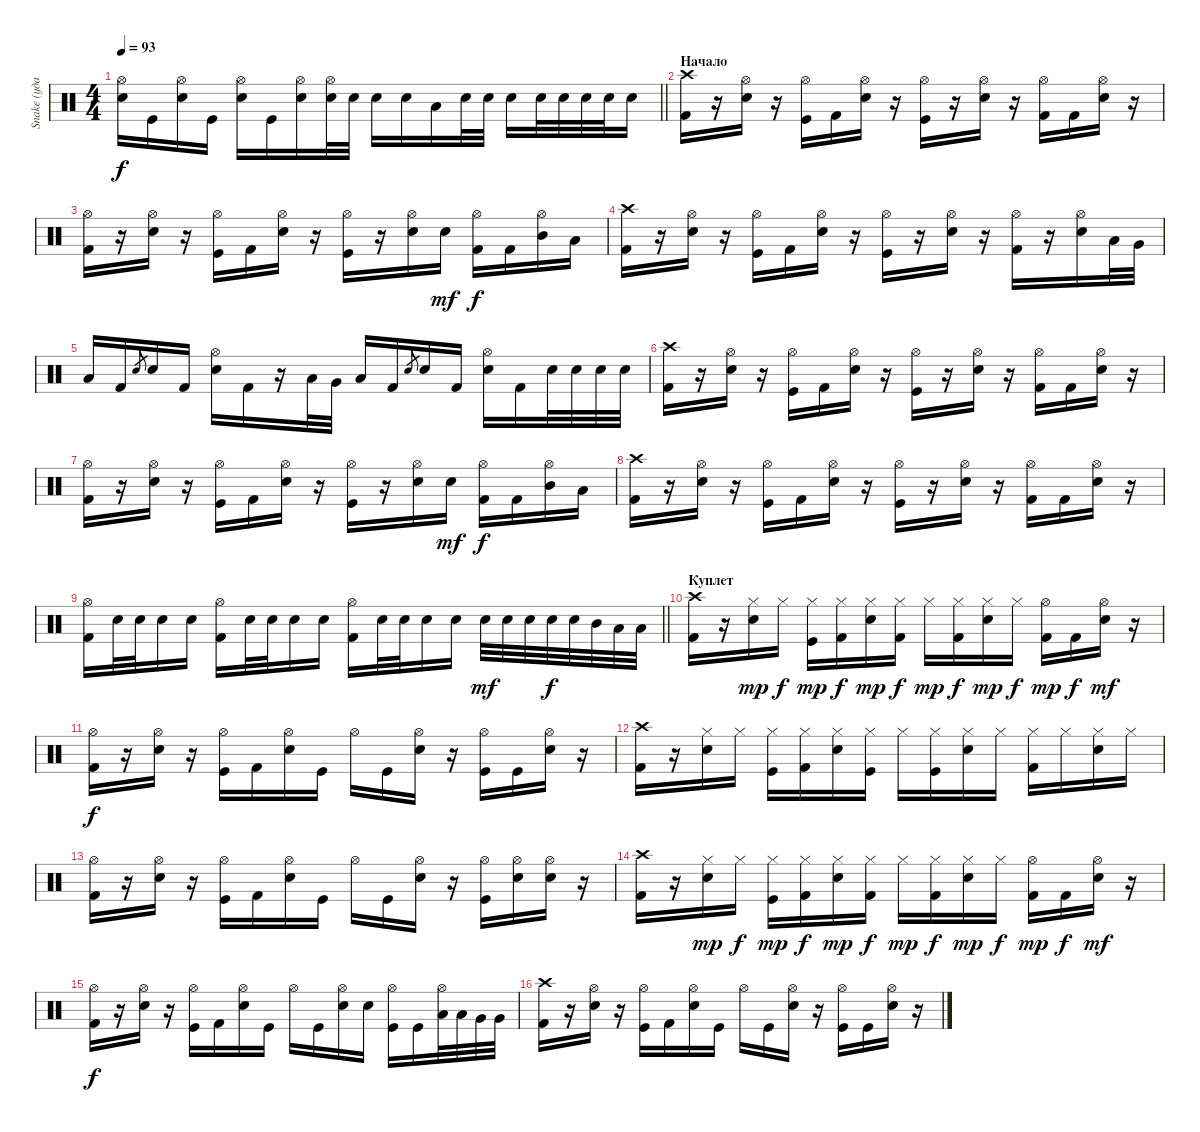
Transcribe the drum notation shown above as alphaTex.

\track ("Snake (ударные)" "Snake (уда") {instrument percussion}
\staff {score}
\articulation defaults
\ts (4 4)
\tempo 93
\clef neutral
\barLineRight lightlight
\ks c
("Snare (hit) 2" "Hi-Hat (open)").16{dy f} "Kick (hit)".16 ("Snare (hit) 2" "Hi-Hat (open)").16 "Kick (hit)".16 ("Snare (hit) 2" "Hi-Hat (open)").16 "Kick (hit)".16 ("Snare (hit) 2" "Hi-Hat (open)").16 ("Snare (hit) 2" "Hi-Hat (open)").32 "Snare (hit) 2".32 "Snare (hit) 2".16 "Snare (hit) 2".16 "Low Tom (hit)".16 "Snare (hit) 2".32 "Snare (hit) 2".32 "Snare (hit) 2".16 "Snare (hit) 2".32 "Snare (hit) 2".32 "Snare (hit) 2".32 "Snare (hit) 2".32 "Snare (hit) 2".16 |
\section ("" "Начало")
("Crash high (hit)" "Kick (hit) 2").16 r.16 ("Hi-Hat (open)" "Snare (hit) 2").16 r.16 ("Hi-Hat (open)" "Kick (hit)").16 "Kick (hit) 2".16 ("Hi-Hat (open)" "Snare (hit) 2").16 r.16 ("Hi-Hat (open)" "Kick (hit)").16 r.16 ("Hi-Hat (open)" "Snare (hit) 2").16 r.16 ("Hi-Hat (open)" "Kick (hit) 2").16 "Kick (hit) 2".16 ("Hi-Hat (open)" "Snare (hit) 2").16 r.16 |
("Hi-Hat (open)" "Kick (hit) 2").16 r.16 ("Hi-Hat (open)" "Snare (hit) 2").16 r.16 ("Hi-Hat (open)" "Kick (hit)").16 "Kick (hit) 2".16 ("Hi-Hat (open)" "Snare (hit) 2").16 r.16 ("Hi-Hat (open)" "Kick (hit)").16 r.16 ("Hi-Hat (open)" "Snare (hit) 2").16 "Snare (hit) 2".16{dy mf} ("Hi-Hat (open)" "Kick (hit) 2").16{dy f} "Kick (hit) 2".16 ("Hi-Hat (open)" "Mid Tom (hit)").16 "Low Tom (hit)".16 |
("Crash high (hit)" "Kick (hit) 2").16 r.16 ("Hi-Hat (open)" "Snare (hit) 2").16 r.16 ("Hi-Hat (open)" "Kick (hit)").16 "Kick (hit) 2".16 ("Hi-Hat (open)" "Snare (hit) 2").16 r.16 ("Hi-Hat (open)" "Kick (hit)").16 r.16 ("Hi-Hat (open)" "Snare (hit) 2").16 r.16 ("Hi-Hat (open)" "Kick (hit) 2").16 r.16 ("Hi-Hat (open)" "Snare (hit) 2").16 "Low Tom (hit)".32 "Very Low Tom (hit)".32 |
"Low Floor Tom (hit)".16 "Kick (hit) 2".16 "Snare (hit) 2".8{gr} "Snare (hit) 2".16 "Kick (hit) 2".16 ("Snare (hit) 2" "Hi-Hat (open)").16 "Kick (hit) 2".16 r.16 "Low Tom (hit)".32 "Very Low Tom (hit)".32 "Low Floor Tom (hit)".16 "Kick (hit) 2".16 "Snare (hit) 2".8{gr} "Snare (hit) 2".16 "Kick (hit) 2".16 ("Snare (hit) 2" "Hi-Hat (open)").16 "Kick (hit) 2".16 "Snare (hit) 2".32 "Snare (hit) 2".32 "Snare (hit) 2".32 "Snare (hit) 2".32 |
("Crash high (hit)" "Kick (hit) 2").16 r.16 ("Hi-Hat (open)" "Snare (hit) 2").16 r.16 ("Hi-Hat (open)" "Kick (hit)").16 "Kick (hit) 2".16 ("Hi-Hat (open)" "Snare (hit) 2").16 r.16 ("Hi-Hat (open)" "Kick (hit)").16 r.16 ("Hi-Hat (open)" "Snare (hit) 2").16 r.16 ("Hi-Hat (open)" "Kick (hit) 2").16 "Kick (hit) 2".16 ("Hi-Hat (open)" "Snare (hit) 2").16 r.16 |
("Hi-Hat (open)" "Kick (hit) 2").16 r.16 ("Hi-Hat (open)" "Snare (hit) 2").16 r.16 ("Hi-Hat (open)" "Kick (hit)").16 "Kick (hit) 2".16 ("Hi-Hat (open)" "Snare (hit) 2").16 r.16 ("Hi-Hat (open)" "Kick (hit)").16 r.16 ("Hi-Hat (open)" "Snare (hit) 2").16 "Snare (hit) 2".16{dy mf} ("Hi-Hat (open)" "Kick (hit) 2").16{dy f} "Kick (hit) 2".16 ("Hi-Hat (open)" "Mid Tom (hit)").16 "Low Tom (hit)".16 |
("Crash high (hit)" "Kick (hit) 2").16 r.16 ("Hi-Hat (open)" "Snare (hit) 2").16 r.16 ("Hi-Hat (open)" "Kick (hit)").16 "Kick (hit) 2".16 ("Hi-Hat (open)" "Snare (hit) 2").16 r.16 ("Hi-Hat (open)" "Kick (hit)").16 r.16 ("Hi-Hat (open)" "Snare (hit) 2").16 r.16 ("Hi-Hat (open)" "Kick (hit) 2").16 "Kick (hit) 2".16 ("Hi-Hat (open)" "Snare (hit) 2").16 r.16 |
\barLineRight lightlight
("Kick (hit) 2" "Hi-Hat (open)").16 "Snare (hit) 2".32 "Snare (hit) 2".32 "Snare (hit) 2".16 "Snare (hit) 2".16 ("Kick (hit) 2" "Hi-Hat (open)").16 "Snare (hit) 2".32 "Snare (hit) 2".32 "Snare (hit) 2".16 "Snare (hit) 2".16 ("Kick (hit) 2" "Hi-Hat (open)").16 "Snare (hit) 2".32 "Snare (hit) 2".32 "Snare (hit) 2".16 "Snare (hit) 2".16 "Snare (hit) 2".32{dy mf} "Snare (hit) 2".32 "Snare (hit) 2".32 "Snare (hit) 2".32{dy f} "Snare (hit) 2".32 "Mid Tom (hit)".32 "Low Tom (hit)".32 "Low Tom (hit)".32 |
\section ("" "Куплет")
("Crash high (hit)" "Kick (hit) 2").16 r.16 ("Hi-Hat (closed)" "Snare (hit) 2").16{dy mp} "Hi-Hat (closed)".16{dy f} ("Hi-Hat (closed)" "Kick (hit)").16{dy mp} ("Hi-Hat (closed)" "Kick (hit) 2").16{dy f} ("Hi-Hat (closed)" "Snare (hit) 2").16{dy mp} ("Hi-Hat (closed)" "Kick (hit) 2").16{dy f} "Hi-Hat (closed)".16{dy mp} ("Hi-Hat (closed)" "Kick (hit) 2").16{dy f} ("Hi-Hat (closed)" "Snare (hit) 2").16{dy mp} "Hi-Hat (closed)".16{dy f} ("Hi-Hat (open)" "Kick (hit) 2").16{dy mp} "Kick (hit) 2".16{dy f} ("Hi-Hat (open)" "Snare (hit) 2").16{dy mf} r.16 |
("Hi-Hat (open)" "Kick (hit) 2").16{dy f} r.16 ("Hi-Hat (open)" "Snare (hit) 2").16 r.16 ("Hi-Hat (open)" "Kick (hit)").16 "Kick (hit) 2".16 ("Hi-Hat (open)" "Snare (hit) 2").16 "Kick (hit)".16 "Hi-Hat (open)".16 "Kick (hit)".16 ("Hi-Hat (open)" "Snare (hit) 2").16 r.16 ("Hi-Hat (open)" "Kick (hit)").16 "Kick (hit)".16 ("Hi-Hat (open)" "Snare (hit) 2").16 r.16 |
("Crash high (hit)" "Kick (hit) 2").16 r.16 ("Hi-Hat (closed)" "Snare (hit) 2").16 "Hi-Hat (closed)".16 ("Hi-Hat (closed)" "Kick (hit)").16 ("Hi-Hat (closed)" "Kick (hit) 2").16 ("Hi-Hat (closed)" "Snare (hit) 2").16 ("Hi-Hat (closed)" "Kick (hit)").16 "Hi-Hat (closed)".16 ("Hi-Hat (closed)" "Kick (hit)").16 ("Hi-Hat (closed)" "Snare (hit) 2").16 "Hi-Hat (closed)".16 ("Hi-Hat (closed)" "Kick (hit) 2").16 "Hi-Hat (closed)".16 ("Hi-Hat (closed)" "Snare (hit) 2").16 "Hi-Hat (closed)".16 |
("Hi-Hat (open)" "Kick (hit) 2").16 r.16 ("Hi-Hat (open)" "Snare (hit) 2").16 r.16 ("Hi-Hat (open)" "Kick (hit)").16 "Kick (hit) 2".16 ("Hi-Hat (open)" "Snare (hit) 2").16 "Kick (hit)".16 "Hi-Hat (open)".16 "Kick (hit)".16 ("Hi-Hat (open)" "Snare (hit) 2").16 r.16 ("Hi-Hat (open)" "Kick (hit)").16 ("Hi-Hat (open)" "Snare (hit) 2").16 ("Hi-Hat (open)" "Snare (hit) 2").16 r.16 |
("Crash high (hit)" "Kick (hit) 2").16 r.16 ("Hi-Hat (closed)" "Snare (hit) 2").16{dy mp} "Hi-Hat (closed)".16{dy f} ("Hi-Hat (closed)" "Kick (hit)").16{dy mp} ("Hi-Hat (closed)" "Kick (hit) 2").16{dy f} ("Hi-Hat (closed)" "Snare (hit) 2").16{dy mp} ("Hi-Hat (closed)" "Kick (hit) 2").16{dy f} "Hi-Hat (closed)".16{dy mp} ("Hi-Hat (closed)" "Kick (hit) 2").16{dy f} ("Hi-Hat (closed)" "Snare (hit) 2").16{dy mp} "Hi-Hat (closed)".16{dy f} ("Hi-Hat (open)" "Kick (hit) 2").16{dy mp} "Kick (hit) 2".16{dy f} ("Hi-Hat (open)" "Snare (hit) 2").16{dy mf} r.16 |
("Hi-Hat (open)" "Kick (hit) 2").16{dy f} r.16 ("Hi-Hat (open)" "Snare (hit) 2").16 r.16 ("Hi-Hat (open)" "Kick (hit)").16 "Kick (hit) 2".16 ("Hi-Hat (open)" "Snare (hit) 2").16 "Kick (hit)".16 "Hi-Hat (open)".16 "Kick (hit)".16 ("Hi-Hat (open)" "Snare (hit) 2").16 "Snare (hit) 2".16 ("Hi-Hat (open)" "Kick (hit)").16 "Kick (hit)".16 ("Hi-Hat (open)" "Low Tom (hit)").32 "Low Tom (hit)".32 "Very Low Tom (hit)".32 "Very Low Tom (hit)".32 |
("Crash high (hit)" "Kick (hit) 2").16 r.16 ("Hi-Hat (open)" "Snare (hit) 2").16 r.16 ("Hi-Hat (open)" "Kick (hit)").16 "Kick (hit) 2".16 ("Hi-Hat (open)" "Snare (hit) 2").16 "Kick (hit)".16 "Hi-Hat (open)".16 "Kick (hit)".16 ("Hi-Hat (open)" "Snare (hit) 2").16 r.16 ("Hi-Hat (open)" "Kick (hit)").16 "Kick (hit)".16 ("Hi-Hat (open)" "Snare (hit) 2").16 r.16
